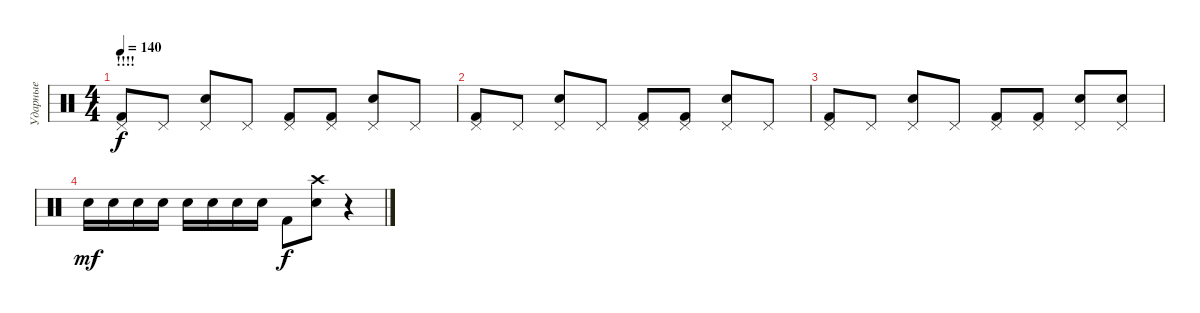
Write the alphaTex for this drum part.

\track ("Ударные" "Ударные") {instrument percussion}
\staff {score}
\articulation defaults
\ts (4 4)
\section ("" "!!!!")
\tempo 140
\clef neutral
\ks c
("Pedal Hi-Hat (hit)" "Kick (hit) 2").8{dy f} "Pedal Hi-Hat (hit)".8 ("Pedal Hi-Hat (hit)" "Electric Snare (hit)").8 "Pedal Hi-Hat (hit)".8 ("Pedal Hi-Hat (hit)" "Kick (hit) 2").8 ("Pedal Hi-Hat (hit)" "Kick (hit) 2").8 ("Pedal Hi-Hat (hit)" "Electric Snare (hit)").8 "Pedal Hi-Hat (hit)".8 |
("Pedal Hi-Hat (hit)" "Kick (hit) 2").8 "Pedal Hi-Hat (hit)".8 ("Pedal Hi-Hat (hit)" "Electric Snare (hit)").8 "Pedal Hi-Hat (hit)".8 ("Pedal Hi-Hat (hit)" "Kick (hit) 2").8 ("Pedal Hi-Hat (hit)" "Kick (hit) 2").8 ("Pedal Hi-Hat (hit)" "Electric Snare (hit)").8 "Pedal Hi-Hat (hit)".8 |
("Pedal Hi-Hat (hit)" "Kick (hit) 2").8 "Pedal Hi-Hat (hit)".8 ("Pedal Hi-Hat (hit)" "Electric Snare (hit)").8 "Pedal Hi-Hat (hit)".8 ("Pedal Hi-Hat (hit)" "Kick (hit) 2").8 ("Pedal Hi-Hat (hit)" "Kick (hit) 2").8 ("Pedal Hi-Hat (hit)" "Electric Snare (hit)").8 ("Pedal Hi-Hat (hit)" "Electric Snare (hit)").8 |
"Electric Snare (hit)".16{dy mf} "Electric Snare (hit)".16 "Electric Snare (hit)".16 "Electric Snare (hit)".16 "Electric Snare (hit)".16 "Electric Snare (hit)".16 "Electric Snare (hit)".16 "Electric Snare (hit)".16 "Kick (hit) 2".8{dy f} ("Electric Snare (hit)" "Crash high (hit)").8 r.4
